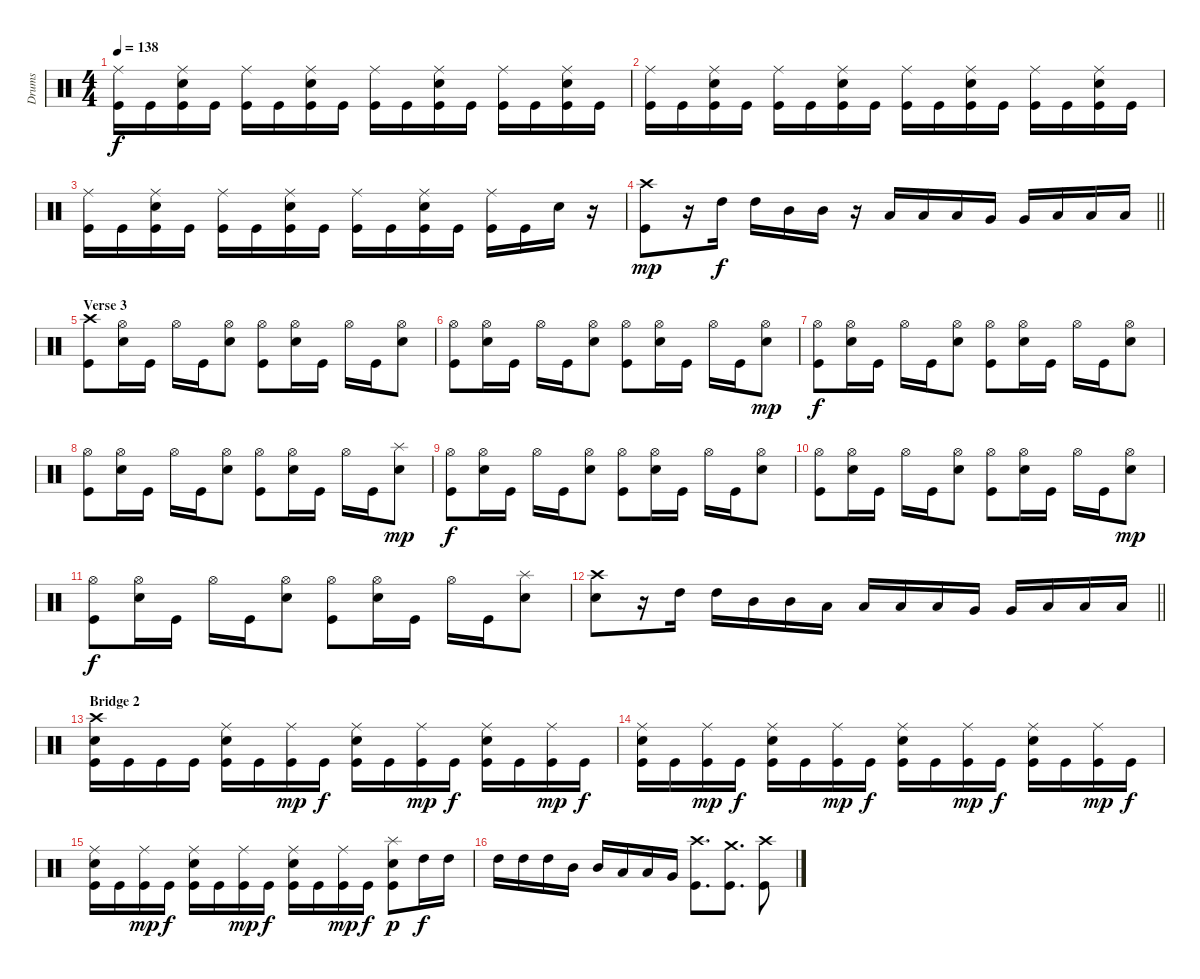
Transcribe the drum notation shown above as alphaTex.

\track ("Drums" "Drums") {instrument percussion}
\staff {score}
\articulation defaults
\ts (4 4)
\tempo 138
\clef neutral
\ks c
("Ride (middle)" "Kick (hit)").16{dy f} "Kick (hit)".16 ("Ride (middle)" "Electric Snare (hit)" "Kick (hit)").16 "Kick (hit)".16 ("Ride (middle)" "Kick (hit)").16 "Kick (hit)".16 ("Ride (middle)" "Electric Snare (hit)" "Kick (hit)").16 "Kick (hit)".16 ("Ride (middle)" "Kick (hit)").16 "Kick (hit)".16 ("Ride (middle)" "Electric Snare (hit)" "Kick (hit)").16 "Kick (hit)".16 ("Ride (middle)" "Kick (hit)").16 "Kick (hit)".16 ("Ride (middle)" "Electric Snare (hit)" "Kick (hit)").16 "Kick (hit)".16 |
("Ride (middle)" "Kick (hit)").16 "Kick (hit)".16 ("Ride (middle)" "Electric Snare (hit)" "Kick (hit)").16 "Kick (hit)".16 ("Ride (middle)" "Kick (hit)").16 "Kick (hit)".16 ("Ride (middle)" "Electric Snare (hit)" "Kick (hit)").16 "Kick (hit)".16 ("Ride (middle)" "Kick (hit)").16 "Kick (hit)".16 ("Ride (middle)" "Electric Snare (hit)" "Kick (hit)").16 "Kick (hit)".16 ("Ride (middle)" "Kick (hit)").16 "Kick (hit)".16 ("Ride (middle)" "Electric Snare (hit)" "Kick (hit)").16 "Kick (hit)".16 |
("Ride (middle)" "Kick (hit)").16 "Kick (hit)".16 ("Ride (middle)" "Electric Snare (hit)" "Kick (hit)").16 "Kick (hit)".16 ("Ride (middle)" "Kick (hit)").16 "Kick (hit)".16 ("Ride (middle)" "Electric Snare (hit)" "Kick (hit)").16 "Kick (hit)".16 ("Ride (middle)" "Kick (hit)").16 "Kick (hit)".16 ("Ride (middle)" "Electric Snare (hit)" "Kick (hit)").16 "Kick (hit)".16 ("Ride (middle)" "Kick (hit)").16 "Kick (hit)".16 "Electric Snare (hit)".16 r.16 |
\barLineRight lightlight
("Crash high (hit)" "Kick (hit)").8{dy mp} r.16 "High Tom (hit)".16{dy f} "High Tom (hit)".16 "Mid Tom (hit)".16 "Mid Tom (hit)".16 r.16 "Low Tom (hit)".16 "Low Tom (hit)".16 "Low Tom (hit)".16 "Very Low Tom (hit)".16 "Very Low Tom (hit)".16 "Low Floor Tom (hit)".16 "Low Floor Tom (hit)".16 "Low Floor Tom (hit)".16 |
\section ("" "Verse 3")
("Crash high (hit)" "Kick (hit)").8 ("Hi-Hat (open)" "Electric Snare (hit)").16 "Kick (hit)".16 "Hi-Hat (open)".16 "Kick (hit)".16 ("Hi-Hat (open)" "Electric Snare (hit)").8 ("Hi-Hat (open)" "Kick (hit)").8 ("Hi-Hat (open)" "Electric Snare (hit)").16 "Kick (hit)".16 "Hi-Hat (open)".16 "Kick (hit)".16 ("Hi-Hat (open)" "Electric Snare (hit)").8 |
("Hi-Hat (open)" "Kick (hit)").8 ("Hi-Hat (open)" "Electric Snare (hit)").16 "Kick (hit)".16 "Hi-Hat (open)".16 "Kick (hit)".16 ("Hi-Hat (open)" "Electric Snare (hit)").8 ("Hi-Hat (open)" "Kick (hit)").8 ("Hi-Hat (open)" "Electric Snare (hit)").16 "Kick (hit)".16 "Hi-Hat (open)".16 "Kick (hit)".16 ("Hi-Hat (open)" "Electric Snare (hit)").8{dy mp} |
("Hi-Hat (open)" "Kick (hit)").8{dy f} ("Hi-Hat (open)" "Electric Snare (hit)").16 "Kick (hit)".16 "Hi-Hat (open)".16 "Kick (hit)".16 ("Hi-Hat (open)" "Electric Snare (hit)").8 ("Hi-Hat (open)" "Kick (hit)").8 ("Hi-Hat (open)" "Electric Snare (hit)").16 "Kick (hit)".16 "Hi-Hat (open)".16 "Kick (hit)".16 ("Hi-Hat (open)" "Electric Snare (hit)").8 |
("Hi-Hat (open)" "Kick (hit)").8 ("Hi-Hat (open)" "Electric Snare (hit)").16 "Kick (hit)".16 "Hi-Hat (open)".16 "Kick (hit)".16 ("Hi-Hat (open)" "Electric Snare (hit)").8 ("Hi-Hat (open)" "Kick (hit)").8 ("Hi-Hat (open)" "Electric Snare (hit)").16 "Kick (hit)".16 "Hi-Hat (open)".16 "Kick (hit)".16 ("Splash (hit)" "Electric Snare (hit)").8{dy mp} |
("Hi-Hat (open)" "Kick (hit)").8{dy f} ("Hi-Hat (open)" "Electric Snare (hit)").16 "Kick (hit)".16 "Hi-Hat (open)".16 "Kick (hit)".16 ("Hi-Hat (open)" "Electric Snare (hit)").8 ("Hi-Hat (open)" "Kick (hit)").8 ("Hi-Hat (open)" "Electric Snare (hit)").16 "Kick (hit)".16 "Hi-Hat (open)".16 "Kick (hit)".16 ("Hi-Hat (open)" "Electric Snare (hit)").8 |
("Hi-Hat (open)" "Kick (hit)").8 ("Hi-Hat (open)" "Electric Snare (hit)").16 "Kick (hit)".16 "Hi-Hat (open)".16 "Kick (hit)".16 ("Hi-Hat (open)" "Electric Snare (hit)").8 ("Hi-Hat (open)" "Kick (hit)").8 ("Hi-Hat (open)" "Electric Snare (hit)").16 "Kick (hit)".16 "Hi-Hat (open)".16 "Kick (hit)".16 ("Hi-Hat (open)" "Electric Snare (hit)").8{dy mp} |
("Hi-Hat (open)" "Kick (hit)").8{dy f} ("Hi-Hat (open)" "Electric Snare (hit)").16 "Kick (hit)".16 "Hi-Hat (open)".16 "Kick (hit)".16 ("Hi-Hat (open)" "Electric Snare (hit)").8 ("Hi-Hat (open)" "Kick (hit)").8 ("Hi-Hat (open)" "Electric Snare (hit)").16 "Kick (hit)".16 "Hi-Hat (open)".16 "Kick (hit)".16 ("Splash (hit)" "Electric Snare (hit)").8 |
\barLineRight lightlight
("Crash high (hit)" "Electric Snare (hit)").8 r.16 "High Tom (hit)".16 "High Tom (hit)".16 "Mid Tom (hit)".16 "Mid Tom (hit)".16 "Low Tom (hit)".16 "Low Tom (hit)".16 "Low Tom (hit)".16 "Low Tom (hit)".16 "Very Low Tom (hit)".16 "Very Low Tom (hit)".16 "Low Floor Tom (hit)".16 "Low Floor Tom (hit)".16 "Low Floor Tom (hit)".16 |
\section ("" "Bridge 2")
("Crash high (hit)" "Electric Snare (hit)" "Kick (hit)").16 "Kick (hit)".16 "Kick (hit)".16 "Kick (hit)".16 ("Ride (middle)" "Electric Snare (hit)" "Kick (hit)").16 "Kick (hit)".16 ("Ride (middle)" "Kick (hit)").16{dy mp} "Kick (hit)".16{dy f} ("Ride (middle)" "Electric Snare (hit)" "Kick (hit)").16 "Kick (hit)".16 ("Ride (middle)" "Kick (hit)").16{dy mp} "Kick (hit)".16{dy f} ("Ride (middle)" "Electric Snare (hit)" "Kick (hit)").16 "Kick (hit)".16 ("Ride (middle)" "Kick (hit)").16{dy mp} "Kick (hit)".16{dy f} |
("Ride (middle)" "Electric Snare (hit)" "Kick (hit)").16 "Kick (hit)".16 ("Ride (middle)" "Kick (hit)").16{dy mp} "Kick (hit)".16{dy f} ("Ride (middle)" "Electric Snare (hit)" "Kick (hit)").16 "Kick (hit)".16 ("Ride (middle)" "Kick (hit)").16{dy mp} "Kick (hit)".16{dy f} ("Ride (middle)" "Electric Snare (hit)" "Kick (hit)").16 "Kick (hit)".16 ("Ride (middle)" "Kick (hit)").16{dy mp} "Kick (hit)".16{dy f} ("Ride (middle)" "Electric Snare (hit)" "Kick (hit)").16 "Kick (hit)".16 ("Ride (middle)" "Kick (hit)").16{dy mp} "Kick (hit)".16{dy f} |
("Ride (middle)" "Electric Snare (hit)" "Kick (hit)").16 "Kick (hit)".16 ("Ride (middle)" "Kick (hit)").16{dy mp} "Kick (hit)".16{dy f} ("Ride (middle)" "Electric Snare (hit)" "Kick (hit)").16 "Kick (hit)".16 ("Ride (middle)" "Kick (hit)").16{dy mp} "Kick (hit)".16{dy f} ("Ride (middle)" "Electric Snare (hit)" "Kick (hit)").16 "Kick (hit)".16 ("Ride (middle)" "Kick (hit)").16{dy mp} "Kick (hit)".16{dy f} ("Splash (hit)" "Electric Snare (hit)" "Kick (hit)").8{dy p} "High Tom (hit)".16{dy f} "High Tom (hit)".16 |
"High Tom (hit)".16 "High Tom (hit)".16 "High Tom (hit)".16 "Mid Tom (hit)".16 "Mid Tom (hit)".16 "Low Tom (hit)".16 "Low Tom (hit)".16 "Very Low Tom (hit)".16 ("Crash high (hit)" "Kick (hit)").8{d} ("Crash medium (hit)" "Kick (hit)").8{d} ("Crash high (hit)" "Kick (hit)").8
